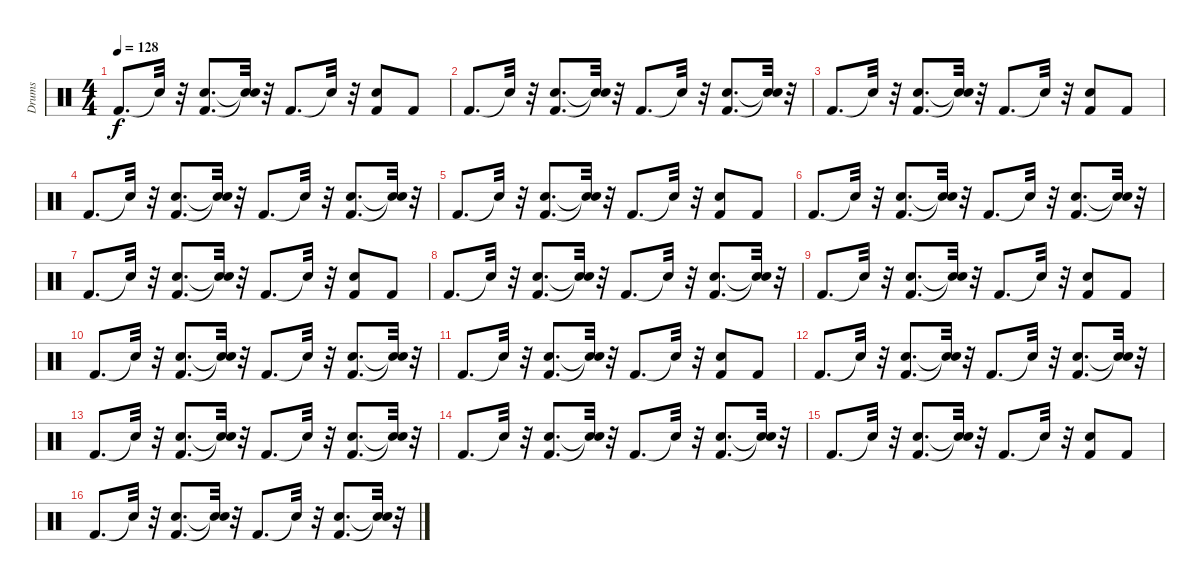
\track ("Drums" "Drums") {instrument percussion}
\staff {score}
\articulation defaults
\ts (4 4)
\tempo 128
\clef neutral
\ks c "Kick (hit) 2".8{d dy f} "Snare (hit)"{t}.32
r.32 ("Kick (hit) 2" "Snare (hit) 2").8{d} ("Snare (hit)"{t} "Snare (hit)"{t}).32 r.32 "Kick (hit) 2".8{d} "Snare (hit)"{t}.32 r.32 ("Snare (hit) 2" "Kick (hit) 2").8 "Kick (hit) 2".8 |
"Kick (hit) 2".8{d} "Snare (hit)"{t}.32 r.32 ("Snare (hit) 2" "Kick (hit) 2").8{d} ("Snare (hit)"{t} "Snare (hit)"{t}).32 r.32 "Kick (hit) 2".8{d} "Snare (hit)"{t}.32 r.32 ("Snare (hit) 2" "Kick (hit) 2").8{d} ("Snare (hit)"{t} "Snare (hit)"{t}).32 r.32 |
"Kick (hit) 2".8{d} "Snare (hit)"{t}.32 r.32 ("Kick (hit) 2" "Snare (hit) 2").8{d} ("Snare (hit)"{t} "Snare (hit)"{t}).32 r.32 "Kick (hit) 2".8{d} "Snare (hit)"{t}.32 r.32 ("Snare (hit) 2" "Kick (hit) 2").8 "Kick (hit) 2".8 |
"Kick (hit) 2".8{d} "Snare (hit)"{t}.32 r.32 ("Kick (hit) 2" "Snare (hit) 2").8{d} ("Snare (hit)"{t} "Snare (hit)"{t}).32 r.32 "Kick (hit) 2".8{d} "Snare (hit)"{t}.32 r.32 ("Kick (hit) 2" "Snare (hit) 2").8{d} ("Snare (hit)"{t} "Snare (hit)"{t}).32 r.32 |
"Kick (hit) 2".8{d} "Snare (hit)"{t}.32 r.32 ("Snare (hit) 2" "Kick (hit) 2").8{d} ("Snare (hit)"{t} "Snare (hit)"{t}).32 r.32 "Kick (hit) 2".8{d} "Snare (hit)"{t}.32 r.32 ("Kick (hit) 2" "Snare (hit) 2").8 "Kick (hit) 2".8 |
"Kick (hit) 2".8{d} "Snare (hit)"{t}.32 r.32 ("Snare (hit) 2" "Kick (hit) 2").8{d} ("Snare (hit)"{t} "Snare (hit)"{t}).32 r.32 "Kick (hit) 2".8{d} "Snare (hit)"{t}.32 r.32 ("Snare (hit) 2" "Kick (hit) 2").8{d} ("Snare (hit)"{t} "Snare (hit)"{t}).32 r.32 |
"Kick (hit) 2".8{d} "Snare (hit)"{t}.32 r.32 ("Kick (hit) 2" "Snare (hit) 2").8{d} ("Snare (hit)"{t} "Snare (hit)"{t}).32 r.32 "Kick (hit) 2".8{d} "Snare (hit)"{t}.32 r.32 ("Kick (hit) 2" "Snare (hit) 2").8 "Kick (hit) 2".8 |
"Kick (hit) 2".8{d} "Snare (hit)"{t}.32 r.32 ("Snare (hit) 2" "Kick (hit) 2").8{d} ("Snare (hit)"{t} "Snare (hit)"{t}).32 r.32 "Kick (hit) 2".8{d} "Snare (hit)"{t}.32 r.32 ("Snare (hit) 2" "Kick (hit) 2").8{d} ("Snare (hit)"{t} "Snare (hit)"{t}).32 r.32 |
"Kick (hit) 2".8{d} "Snare (hit)"{t}.32 r.32 ("Kick (hit) 2" "Snare (hit) 2").8{d} ("Snare (hit)"{t} "Snare (hit)"{t}).32 r.32 "Kick (hit) 2".8{d} "Snare (hit)"{t}.32 r.32 ("Snare (hit) 2" "Kick (hit) 2").8 "Kick (hit) 2".8 |
"Kick (hit) 2".8{d} "Snare (hit)"{t}.32 r.32 ("Snare (hit) 2" "Kick (hit) 2").8{d} ("Snare (hit)"{t} "Snare (hit)"{t}).32 r.32 "Kick (hit) 2".8{d} "Snare (hit)"{t}.32 r.32 ("Kick (hit) 2" "Snare (hit) 2").8{d} ("Snare (hit)"{t} "Snare (hit)"{t}).32 r.32 |
"Kick (hit) 2".8{d} "Snare (hit)"{t}.32 r.32 ("Kick (hit) 2" "Snare (hit) 2").8{d} ("Snare (hit)"{t} "Snare (hit)"{t}).32 r.32 "Kick (hit) 2".8{d} "Snare (hit)"{t}.32 r.32 ("Kick (hit) 2" "Snare (hit) 2").8 "Kick (hit) 2".8 |
"Kick (hit) 2".8{d} "Snare (hit)"{t}.32 r.32 ("Kick (hit) 2" "Snare (hit) 2").8{d} ("Snare (hit)"{t} "Snare (hit)"{t}).32 r.32 "Kick (hit) 2".8{d} "Snare (hit)"{t}.32 r.32 ("Snare (hit) 2" "Kick (hit) 2").8{d} ("Snare (hit)"{t} "Snare (hit)"{t}).32 r.32 |
"Kick (hit) 2".8{d} "Snare (hit)"{t}.32 r.32 ("Snare (hit) 2" "Kick (hit) 2").8{d} ("Snare (hit)"{t} "Snare (hit)"{t}).32 r.32 "Kick (hit) 2".8{d} "Snare (hit)"{t}.32 r.32 ("Snare (hit) 2" "Kick (hit) 2").8{d} ("Snare (hit)"{t} "Snare (hit)"{t}).32 r.32 |
"Kick (hit) 2".8{d} "Snare (hit)"{t}.32 r.32 ("Kick (hit) 2" "Snare (hit) 2").8{d} ("Snare (hit)"{t} "Snare (hit)"{t}).32 r.32 "Kick (hit) 2".8{d} "Snare (hit)"{t}.32 r.32 ("Kick (hit) 2" "Snare (hit) 2").8{d} ("Snare (hit)"{t} "Snare (hit)"{t}).32 r.32 |
"Kick (hit) 2".8{d} "Snare (hit)"{t}.32 r.32 ("Kick (hit) 2" "Snare (hit) 2").8{d} ("Snare (hit)"{t} "Snare (hit)"{t}).32 r.32 "Kick (hit) 2".8{d} "Snare (hit)"{t}.32 r.32 ("Kick (hit) 2" "Snare (hit) 2").8 "Kick (hit) 2".8 |
"Kick (hit) 2".8{d} "Snare (hit)"{t}.32 r.32 ("Snare (hit) 2" "Kick (hit) 2").8{d} ("Snare (hit)"{t} "Snare (hit)"{t}).32 r.32 "Kick (hit) 2".8{d} "Snare (hit)"{t}.32 r.32 ("Snare (hit) 2" "Kick (hit) 2").8{d} ("Snare (hit)"{t} "Snare (hit)"{t}).32 r.32
